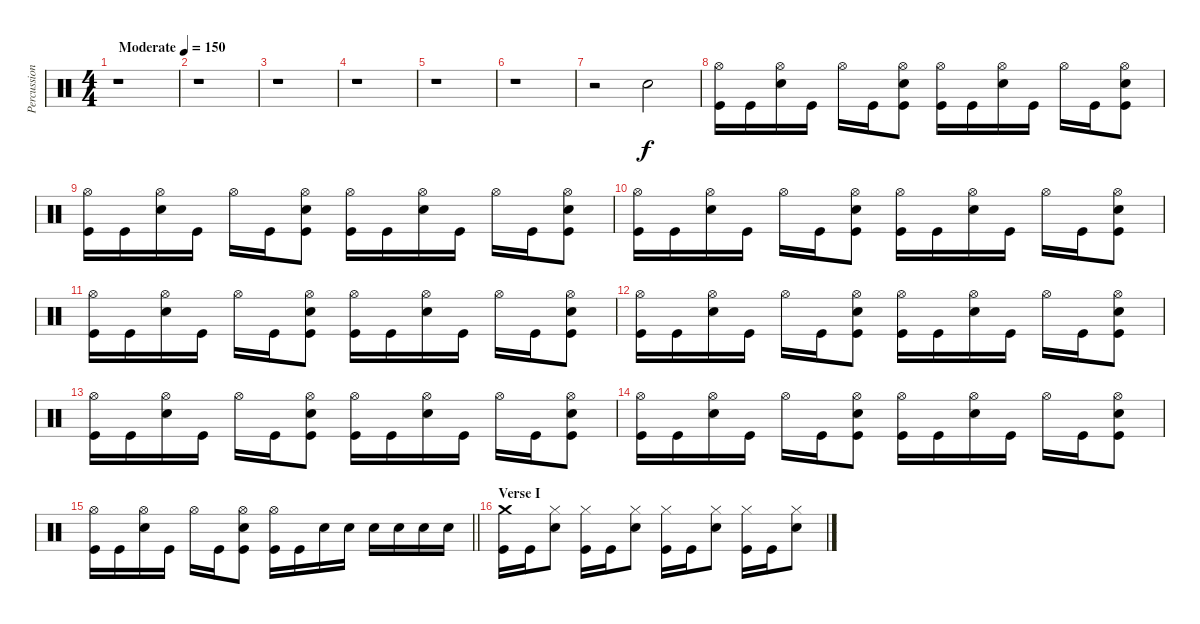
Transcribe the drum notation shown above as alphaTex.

\track ("Percussion" "Percussion") {instrument percussion}
\staff {score}
\articulation defaults
\ts (4 4)
\tempo (150 "Moderate")
\clef neutral
\ks c
r.1{dy f} |
r.1 |
r.1 |
r.1 |
r.1 |
r.1 |
r.2 "Electric Snare (hit)".2{balance 8} |
("Hi-Hat (open)" "Kick (hit)").16{balance 8} "Kick (hit)".16 ("Hi-Hat (open)" "Electric Snare (hit)").16 "Kick (hit)".16 "Hi-Hat (open)".16 "Kick (hit)".16 ("Hi-Hat (open)" "Electric Snare (hit)" "Kick (hit)").8 ("Hi-Hat (open)" "Kick (hit)").16 "Kick (hit)".16 ("Hi-Hat (open)" "Electric Snare (hit)").16 "Kick (hit)".16 "Hi-Hat (open)".16 "Kick (hit)".16 ("Hi-Hat (open)" "Electric Snare (hit)" "Kick (hit)").8 |
("Hi-Hat (open)" "Kick (hit)").16 "Kick (hit)".16 ("Hi-Hat (open)" "Electric Snare (hit)").16 "Kick (hit)".16 "Hi-Hat (open)".16 "Kick (hit)".16 ("Hi-Hat (open)" "Electric Snare (hit)" "Kick (hit)").8 ("Hi-Hat (open)" "Kick (hit)").16 "Kick (hit)".16 ("Hi-Hat (open)" "Electric Snare (hit)").16 "Kick (hit)".16 "Hi-Hat (open)".16 "Kick (hit)".16 ("Hi-Hat (open)" "Electric Snare (hit)" "Kick (hit)").8 |
("Hi-Hat (open)" "Kick (hit)").16 "Kick (hit)".16 ("Hi-Hat (open)" "Electric Snare (hit)").16 "Kick (hit)".16 "Hi-Hat (open)".16 "Kick (hit)".16 ("Hi-Hat (open)" "Electric Snare (hit)" "Kick (hit)").8 ("Hi-Hat (open)" "Kick (hit)").16 "Kick (hit)".16 ("Hi-Hat (open)" "Electric Snare (hit)").16 "Kick (hit)".16 "Hi-Hat (open)".16 "Kick (hit)".16 ("Hi-Hat (open)" "Electric Snare (hit)" "Kick (hit)").8 |
("Hi-Hat (open)" "Kick (hit)").16 "Kick (hit)".16 ("Hi-Hat (open)" "Electric Snare (hit)").16 "Kick (hit)".16 "Hi-Hat (open)".16 "Kick (hit)".16 ("Hi-Hat (open)" "Electric Snare (hit)" "Kick (hit)").8 ("Hi-Hat (open)" "Kick (hit)").16 "Kick (hit)".16 ("Hi-Hat (open)" "Electric Snare (hit)").16 "Kick (hit)".16 "Hi-Hat (open)".16 "Kick (hit)".16 ("Hi-Hat (open)" "Electric Snare (hit)" "Kick (hit)").8 |
("Hi-Hat (open)" "Kick (hit)").16 "Kick (hit)".16 ("Hi-Hat (open)" "Electric Snare (hit)").16 "Kick (hit)".16 "Hi-Hat (open)".16 "Kick (hit)".16 ("Hi-Hat (open)" "Electric Snare (hit)" "Kick (hit)").8 ("Hi-Hat (open)" "Kick (hit)").16 "Kick (hit)".16 ("Hi-Hat (open)" "Electric Snare (hit)").16 "Kick (hit)".16 "Hi-Hat (open)".16 "Kick (hit)".16 ("Hi-Hat (open)" "Electric Snare (hit)" "Kick (hit)").8 |
("Hi-Hat (open)" "Kick (hit)").16 "Kick (hit)".16 ("Hi-Hat (open)" "Electric Snare (hit)").16 "Kick (hit)".16 "Hi-Hat (open)".16 "Kick (hit)".16 ("Hi-Hat (open)" "Electric Snare (hit)" "Kick (hit)").8 ("Hi-Hat (open)" "Kick (hit)").16 "Kick (hit)".16 ("Hi-Hat (open)" "Electric Snare (hit)").16 "Kick (hit)".16 "Hi-Hat (open)".16 "Kick (hit)".16 ("Hi-Hat (open)" "Electric Snare (hit)" "Kick (hit)").8 |
("Hi-Hat (open)" "Kick (hit)").16 "Kick (hit)".16 ("Hi-Hat (open)" "Electric Snare (hit)").16 "Kick (hit)".16 "Hi-Hat (open)".16 "Kick (hit)".16 ("Hi-Hat (open)" "Electric Snare (hit)" "Kick (hit)").8 ("Hi-Hat (open)" "Kick (hit)").16 "Kick (hit)".16 ("Hi-Hat (open)" "Electric Snare (hit)").16 "Kick (hit)".16 "Hi-Hat (open)".16 "Kick (hit)".16 ("Hi-Hat (open)" "Electric Snare (hit)" "Kick (hit)").8 |
\barLineRight lightlight
("Hi-Hat (open)" "Kick (hit)").16 "Kick (hit)".16 ("Hi-Hat (open)" "Electric Snare (hit)").16 "Kick (hit)".16 "Hi-Hat (open)".16 "Kick (hit)".16 ("Hi-Hat (open)" "Electric Snare (hit)" "Kick (hit)").8 ("Hi-Hat (open)" "Kick (hit)").16 "Kick (hit)".16 "Electric Snare (hit)".16 "Electric Snare (hit)".16 "Electric Snare (hit)".16 "Electric Snare (hit)".16 "Electric Snare (hit)".16 "Electric Snare (hit)".16 |
\section ("" "Verse I")
("Crash medium (hit)" "Kick (hit)").16 "Kick (hit)".16 ("Hi-Hat (closed)" "Electric Snare (hit)").8 ("Hi-Hat (closed)" "Kick (hit)").16 "Kick (hit)".16 ("Hi-Hat (closed)" "Electric Snare (hit)").8 ("Hi-Hat (closed)" "Kick (hit)").16 "Kick (hit)".16 ("Hi-Hat (closed)" "Electric Snare (hit)").8 ("Hi-Hat (closed)" "Kick (hit)").16 "Kick (hit)".16 ("Hi-Hat (closed)" "Electric Snare (hit)").8
